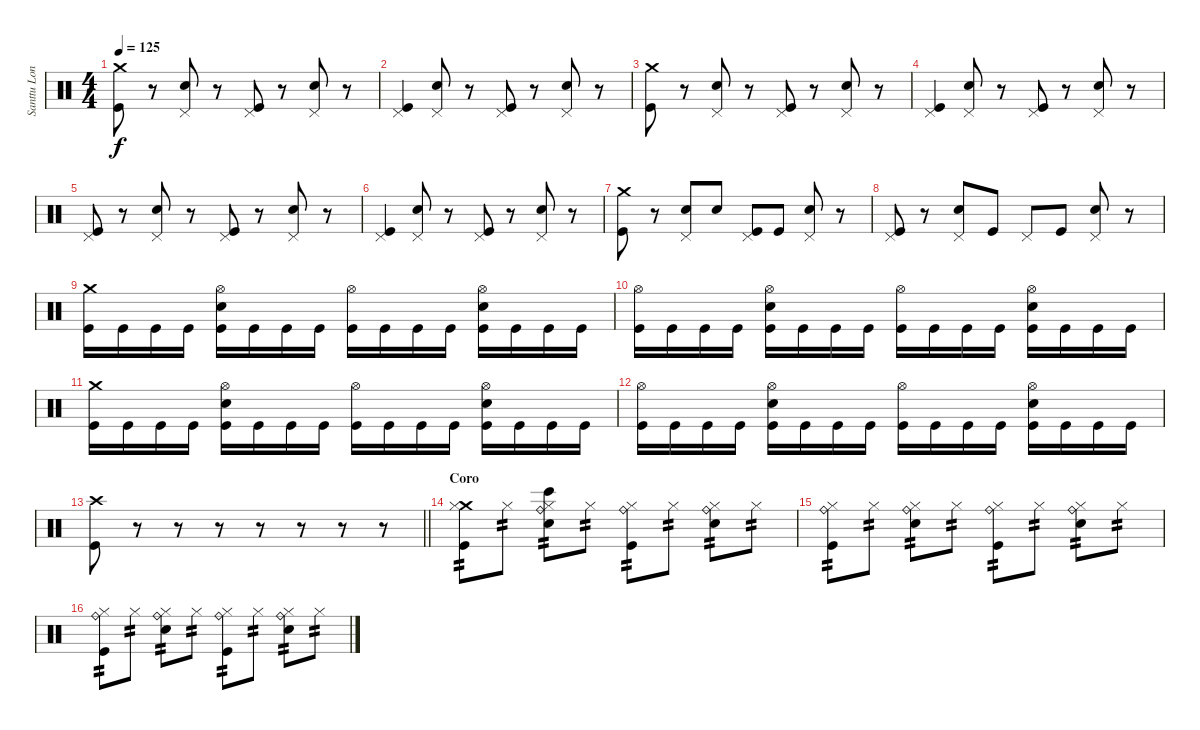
\track ("Santtu Lonka" "Santtu Lon") {instrument percussion}
\staff {score}
\articulation defaults
\ts (4 4)
\tempo 125
\clef neutral
\ks c
("Crash medium (hit)" "Kick (hit)").8{dy f} r.8 ("Pedal Hi-Hat (hit)" "Electric Snare (hit)").8 r.8 ("Pedal Hi-Hat (hit)" "Kick (hit)").8 r.8 ("Pedal Hi-Hat (hit)" "Electric Snare (hit)").8 r.8 |
("Pedal Hi-Hat (hit)" "Kick (hit)").4 ("Pedal Hi-Hat (hit)" "Electric Snare (hit)").8 r.8 ("Pedal Hi-Hat (hit)" "Kick (hit)").8 r.8 ("Pedal Hi-Hat (hit)" "Electric Snare (hit)").8 r.8 |
("Crash medium (hit)" "Kick (hit)").8 r.8 ("Pedal Hi-Hat (hit)" "Electric Snare (hit)").8 r.8 ("Pedal Hi-Hat (hit)" "Kick (hit)").8 r.8 ("Pedal Hi-Hat (hit)" "Electric Snare (hit)").8 r.8 |
("Pedal Hi-Hat (hit)" "Kick (hit)").4 ("Pedal Hi-Hat (hit)" "Electric Snare (hit)").8 r.8 ("Pedal Hi-Hat (hit)" "Kick (hit)").8 r.8 ("Pedal Hi-Hat (hit)" "Electric Snare (hit)").8 r.8 |
("Pedal Hi-Hat (hit)" "Kick (hit)").8 r.8 ("Pedal Hi-Hat (hit)" "Electric Snare (hit)").8 r.8 ("Pedal Hi-Hat (hit)" "Kick (hit)").8 r.8 ("Pedal Hi-Hat (hit)" "Electric Snare (hit)").8 r.8 |
("Pedal Hi-Hat (hit)" "Kick (hit)").4 ("Pedal Hi-Hat (hit)" "Electric Snare (hit)").8 r.8 ("Pedal Hi-Hat (hit)" "Kick (hit)").8 r.8 ("Pedal Hi-Hat (hit)" "Electric Snare (hit)").8 r.8 |
("Crash medium (hit)" "Kick (hit)").8 r.8 ("Pedal Hi-Hat (hit)" "Electric Snare (hit)").8 "Snare (hit)".8 ("Pedal Hi-Hat (hit)" "Kick (hit)").8 "Kick (hit)".8 ("Pedal Hi-Hat (hit)" "Electric Snare (hit)").8 r.8 |
("Pedal Hi-Hat (hit)" "Kick (hit)").8 r.8 ("Pedal Hi-Hat (hit)" "Electric Snare (hit)").8 "Kick (hit)".8 "Pedal Hi-Hat (hit)".8 "Kick (hit)".8 ("Pedal Hi-Hat (hit)" "Electric Snare (hit)").8 r.8 |
("Crash medium (hit)" "Kick (hit)").16 "Kick (hit)".16 "Kick (hit)".16 "Kick (hit)".16 ("Hi-Hat (open)" "Electric Snare (hit)" "Kick (hit)").16 "Kick (hit)".16 "Kick (hit)".16 "Kick (hit)".16 ("Hi-Hat (open)" "Kick (hit)").16 "Kick (hit)".16 "Kick (hit)".16 "Kick (hit)".16 ("Hi-Hat (open)" "Electric Snare (hit)" "Kick (hit)").16 "Kick (hit)".16 "Kick (hit)".16 "Kick (hit)".16 |
("Hi-Hat (open)" "Kick (hit)").16 "Kick (hit)".16 "Kick (hit)".16 "Kick (hit)".16 ("Hi-Hat (open)" "Electric Snare (hit)" "Kick (hit)").16 "Kick (hit)".16 "Kick (hit)".16 "Kick (hit)".16 ("Hi-Hat (open)" "Kick (hit)").16 "Kick (hit)".16 "Kick (hit)".16 "Kick (hit)".16 ("Hi-Hat (open)" "Electric Snare (hit)" "Kick (hit)").16 "Kick (hit)".16 "Kick (hit)".16 "Kick (hit)".16 |
("Crash medium (hit)" "Kick (hit)").16 "Kick (hit)".16 "Kick (hit)".16 "Kick (hit)".16 ("Hi-Hat (open)" "Electric Snare (hit)" "Kick (hit)").16 "Kick (hit)".16 "Kick (hit)".16 "Kick (hit)".16 ("Hi-Hat (open)" "Kick (hit)").16 "Kick (hit)".16 "Kick (hit)".16 "Kick (hit)".16 ("Hi-Hat (open)" "Electric Snare (hit)" "Kick (hit)").16 "Kick (hit)".16 "Kick (hit)".16 "Kick (hit)".16 |
("Hi-Hat (open)" "Kick (hit)").16 "Kick (hit)".16 "Kick (hit)".16 "Kick (hit)".16 ("Hi-Hat (open)" "Electric Snare (hit)" "Kick (hit)").16 "Kick (hit)".16 "Kick (hit)".16 "Kick (hit)".16 ("Hi-Hat (open)" "Kick (hit)").16 "Kick (hit)".16 "Kick (hit)".16 "Kick (hit)".16 ("Hi-Hat (open)" "Electric Snare (hit)" "Kick (hit)").16 "Kick (hit)".16 "Kick (hit)".16 "Kick (hit)".16 |
\barLineRight lightlight
("Crash high (hit)" "Kick (hit)").8 r.8 r.8 r.8 r.8 r.8 r.8 r.8 |
\section ("" "Coro")
("Crash medium (hit)" "Hi-Hat (closed)" "Kick (hit)").8{tp 2} "Hi-Hat (closed)".8{tp 2} ("Ride (bell)" "Hi-Hat (closed)" "Electric Snare (hit)" "Bongo High (hit)").8{tp 2} "Hi-Hat (closed)".8{tp 2} ("Ride (bell)" "Hi-Hat (closed)" "Kick (hit)").8{tp 2} "Hi-Hat (closed)".8{tp 2} ("Ride (bell)" "Hi-Hat (closed)" "Electric Snare (hit)").8{tp 2} "Hi-Hat (closed)".8{tp 2} |
("Ride (bell)" "Hi-Hat (closed)" "Kick (hit)").8{tp 2} "Hi-Hat (closed)".8{tp 2} ("Ride (bell)" "Hi-Hat (closed)" "Electric Snare (hit)").8{tp 2} "Hi-Hat (closed)".8{tp 2} ("Ride (bell)" "Hi-Hat (closed)" "Kick (hit)").8{tp 2} "Hi-Hat (closed)".8{tp 2} ("Ride (bell)" "Hi-Hat (closed)" "Electric Snare (hit)").8{tp 2} "Hi-Hat (closed)".8{tp 2} |
("Ride (bell)" "Hi-Hat (closed)" "Kick (hit)").8{tp 2} "Hi-Hat (closed)".8{tp 2} ("Ride (bell)" "Hi-Hat (closed)" "Electric Snare (hit)").8{tp 2} "Hi-Hat (closed)".8{tp 2} ("Ride (bell)" "Hi-Hat (closed)" "Kick (hit)").8{tp 2} "Hi-Hat (closed)".8{tp 2} ("Ride (bell)" "Hi-Hat (closed)" "Electric Snare (hit)").8{tp 2} "Hi-Hat (closed)".8{tp 2}
